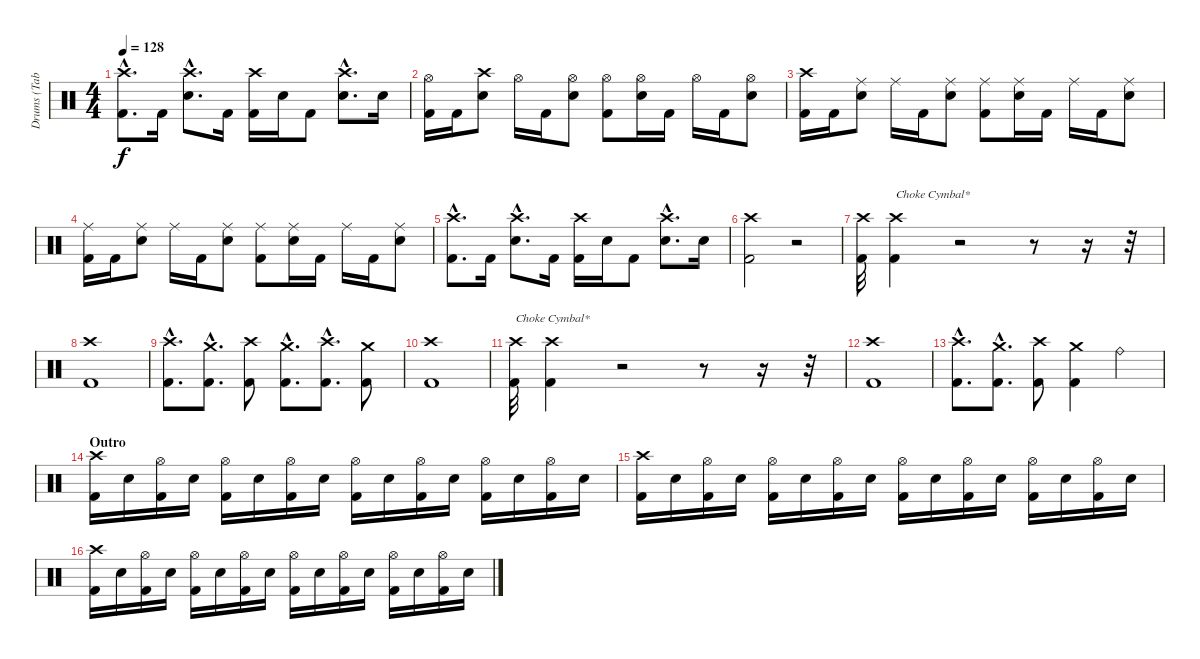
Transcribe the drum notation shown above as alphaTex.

\track ("Drums (Tabbed by: Leonardo_codev)" "Drums (Tab") {instrument percussion}
\staff {score}
\articulation defaults
\ts (4 4)
\tempo 128
\clef neutral
\ks c
("Crash high (hit)"{hac} "Kick (hit) 2"{hac}).8{d dy f} "Kick (hit) 2".16 ("Crash high (hit)"{hac} "Electric Snare (hit)"{hac}).8{d} "Kick (hit) 2".16 ("Crash high (hit)" "Kick (hit) 2").16 "Electric Snare (hit)".16 "Kick (hit) 2".8 ("Crash high (hit)"{hac} "Electric Snare (hit)"{hac}).8{d} "Electric Snare (hit)".16 |
("Hi-Hat (open)" "Kick (hit) 2").16 "Kick (hit) 2".16 ("Crash high (hit)" "Electric Snare (hit)").8 "Hi-Hat (open)".16 "Kick (hit) 2".16 ("Hi-Hat (open)" "Electric Snare (hit)").8 ("Hi-Hat (open)" "Kick (hit) 2").8 ("Hi-Hat (open)" "Electric Snare (hit)").16 "Kick (hit) 2".16 "Hi-Hat (open)".16 "Kick (hit) 2".16 ("Hi-Hat (open)" "Electric Snare (hit)").8 |
("Crash high (hit)" "Kick (hit) 2").16 "Kick (hit) 2".16 ("Ride (middle)" "Electric Snare (hit)").8 "Ride (middle)".16 "Kick (hit) 2".16 ("Ride (middle)" "Electric Snare (hit)").8 ("Ride (middle)" "Kick (hit) 2").8 ("Ride (middle)" "Electric Snare (hit)").16 "Kick (hit) 2".16 "Ride (middle)".16 "Kick (hit) 2".16 ("Ride (middle)" "Electric Snare (hit)").8 |
("Ride (middle)" "Kick (hit) 2").16 "Kick (hit) 2".16 ("Ride (middle)" "Electric Snare (hit)").8 "Ride (middle)".16 "Kick (hit) 2".16 ("Ride (middle)" "Electric Snare (hit)").8 ("Ride (middle)" "Kick (hit) 2").8 ("Ride (middle)" "Electric Snare (hit)").16 "Kick (hit) 2".16 "Ride (middle)".16 "Kick (hit) 2".16 ("Ride (middle)" "Electric Snare (hit)").8 |
("Crash high (hit)"{hac} "Kick (hit) 2"{hac}).8{d} "Kick (hit) 2".16 ("Crash high (hit)"{hac} "Electric Snare (hit)"{hac}).8{d} "Kick (hit) 2".16 ("Crash high (hit)" "Kick (hit) 2").16 "Electric Snare (hit)".16 "Kick (hit) 2".8 ("Crash high (hit)"{hac} "Electric Snare (hit)"{hac}).8{d} "Electric Snare (hit)".16 |
("Crash high (hit)" "Kick (hit) 2").2 r.2 |
("Crash high (hit)" "Kick (hit) 2").32 ("Crash high (hit)" "Kick (hit) 2").4{txt "Choke Cymbal*"} r.2 r.8 r.16 r.32 |
("Crash high (hit)" "Kick (hit) 2").1 |
("Crash high (hit)"{hac} "Kick (hit) 2"{hac}).8{d} ("Crash medium (hit)"{hac} "Kick (hit) 2"{hac}).8{d} ("Crash high (hit)" "Kick (hit) 2").8 ("Crash medium (hit)"{hac} "Kick (hit) 2"{hac}).8{d} ("Crash high (hit)"{hac} "Kick (hit) 2"{hac}).8{d} ("Crash medium (hit)" "Kick (hit) 2").8 |
("Crash high (hit)" "Kick (hit) 2").1 |
("Crash high (hit)" "Kick (hit) 2").32{txt "Choke Cymbal*"} ("Crash high (hit)" "Kick (hit) 2").4 r.2 r.8 r.16 r.32 |
("Crash high (hit)" "Kick (hit) 2").1 |
("Crash high (hit)"{hac} "Kick (hit) 2"{hac}).8{d} ("Crash medium (hit)"{hac} "Kick (hit) 2"{hac}).8{d} ("Crash high (hit)" "Kick (hit) 2").8 ("Crash medium (hit)" "Kick (hit) 2").4 "Ride (bell)".4 |
\section ("" "Outro")
("Crash high (hit)" "Kick (hit) 2").16 "Electric Snare (hit)".16 ("Hi-Hat (open)" "Kick (hit) 2").16 "Electric Snare (hit)".16 ("Hi-Hat (open)" "Kick (hit) 2").16 "Electric Snare (hit)".16 ("Hi-Hat (open)" "Kick (hit) 2").16 "Electric Snare (hit)".16 ("Hi-Hat (open)" "Kick (hit) 2").16 "Electric Snare (hit)".16 ("Hi-Hat (open)" "Kick (hit) 2").16 "Electric Snare (hit)".16 ("Hi-Hat (open)" "Kick (hit) 2").16 "Electric Snare (hit)".16 ("Hi-Hat (open)" "Kick (hit) 2").16 "Electric Snare (hit)".16 |
("Crash high (hit)" "Kick (hit) 2").16 "Electric Snare (hit)".16 ("Hi-Hat (open)" "Kick (hit) 2").16 "Electric Snare (hit)".16 ("Hi-Hat (open)" "Kick (hit) 2").16 "Electric Snare (hit)".16 ("Hi-Hat (open)" "Kick (hit) 2").16 "Electric Snare (hit)".16 ("Hi-Hat (open)" "Kick (hit) 2").16 "Electric Snare (hit)".16 ("Hi-Hat (open)" "Kick (hit) 2").16 "Electric Snare (hit)".16 ("Hi-Hat (open)" "Kick (hit) 2").16 "Electric Snare (hit)".16 ("Hi-Hat (open)" "Kick (hit) 2").16 "Electric Snare (hit)".16 |
("Crash high (hit)" "Kick (hit) 2").16 "Electric Snare (hit)".16 ("Hi-Hat (open)" "Kick (hit) 2").16 "Electric Snare (hit)".16 ("Hi-Hat (open)" "Kick (hit) 2").16 "Electric Snare (hit)".16 ("Hi-Hat (open)" "Kick (hit) 2").16 "Electric Snare (hit)".16 ("Hi-Hat (open)" "Kick (hit) 2").16 "Electric Snare (hit)".16 ("Hi-Hat (open)" "Kick (hit) 2").16 "Electric Snare (hit)".16 ("Hi-Hat (open)" "Kick (hit) 2").16 "Electric Snare (hit)".16 ("Hi-Hat (open)" "Kick (hit) 2").16 "Electric Snare (hit)".16
